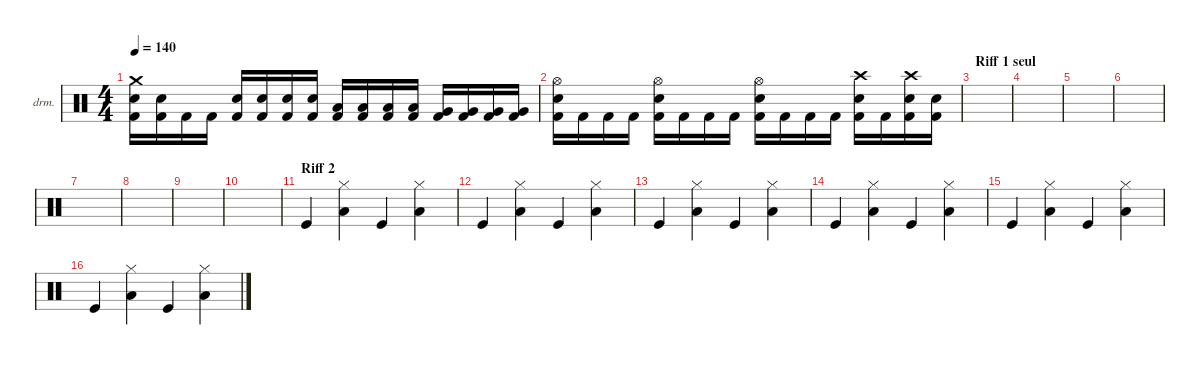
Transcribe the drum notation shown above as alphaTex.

\defaultSystemsLayout 4
\hideDynamics
\bracketExtendMode nobrackets
\firstSystemTrackNameOrientation horizontal
\otherSystemsTrackNameOrientation horizontal
\track ("Drumkit" "drm.") {instrument percussion}
\staff {score}
\articulation defaults
\ts (4 4)
\tempo 140
\clef neutral
\ks c
("Crash medium (hit)" "Snare (hit) 2" "Kick (hit) 2").16{dy mf} ("Snare (hit) 2" "Kick (hit) 2").16 "Kick (hit) 2".16 "Kick (hit) 2".16 ("Snare (hit) 2" "Kick (hit) 2").16 ("Snare (hit) 2" "Kick (hit) 2").16 ("Snare (hit) 2" "Kick (hit) 2").16 ("Snare (hit) 2" "Kick (hit) 2").16 ("Low Tom (hit)" "Kick (hit) 2").16 ("Low Tom (hit)" "Kick (hit) 2").16 ("Low Tom (hit)" "Kick (hit) 2").16 ("Low Tom (hit)" "Kick (hit) 2").16 ("Very Low Tom (hit)" "Kick (hit) 2").16 ("Very Low Tom (hit)" "Kick (hit) 2").16 ("Very Low Tom (hit)" "Kick (hit) 2").16 ("Very Low Tom (hit)" "Kick (hit) 2").16 |
("Hi-Hat (open)" "Snare (hit) 2" "Kick (hit) 2").16 "Kick (hit) 2".16 "Kick (hit) 2".16 "Kick (hit) 2".16 ("Hi-Hat (open)" "Snare (hit) 2" "Kick (hit) 2").16 "Kick (hit) 2".16 "Kick (hit) 2".16 "Kick (hit) 2".16 ("Hi-Hat (open)" "Snare (hit) 2" "Kick (hit) 2").16 "Kick (hit) 2".16 "Kick (hit) 2".16 "Kick (hit) 2".16 ("Crash high (hit)" "Snare (hit) 2" "Kick (hit) 2").16 "Kick (hit) 2".16 ("Crash high (hit)" "Snare (hit) 2" "Kick (hit) 2").16 ("Snare (hit) 2" "Kick (hit) 2").16 |
\section ("" "Riff 1 seul")
|
|
|
|
|
|
|
|
\section ("" "Riff 2")
"Kick (hit)".4 ("Hi-Hat (closed)" "Low Tom (hit)").4 "Kick (hit)".4 ("Hi-Hat (closed)" "Low Tom (hit)").4 |
"Kick (hit)".4 ("Hi-Hat (closed)" "Low Tom (hit)").4 "Kick (hit)".4 ("Hi-Hat (closed)" "Low Tom (hit)").4 |
"Kick (hit)".4 ("Hi-Hat (closed)" "Low Tom (hit)").4 "Kick (hit)".4 ("Hi-Hat (closed)" "Low Tom (hit)").4 |
"Kick (hit)".4 ("Hi-Hat (closed)" "Low Tom (hit)").4 "Kick (hit)".4 ("Hi-Hat (closed)" "Low Tom (hit)").4 |
"Kick (hit)".4 ("Hi-Hat (closed)" "Low Tom (hit)").4 "Kick (hit)".4 ("Hi-Hat (closed)" "Low Tom (hit)").4 |
"Kick (hit)".4 ("Hi-Hat (closed)" "Low Tom (hit)").4 "Kick (hit)".4 ("Hi-Hat (closed)" "Low Tom (hit)").4
